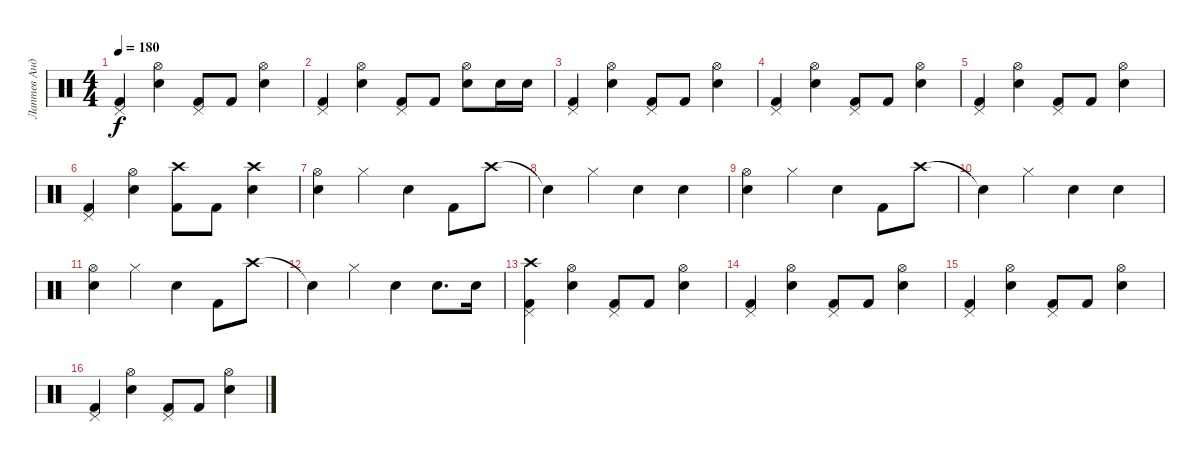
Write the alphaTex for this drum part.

\track ("Лаптев Андрей" "Лаптев Анд") {instrument percussion}
\staff {score}
\articulation defaults
\ts (4 4)
\tempo 180
\clef neutral
\ks c
("Kick (hit) 2" "Pedal Hi-Hat (hit)").4{dy f} ("Snare (hit) 2" "Hi-Hat (open)").4 ("Kick (hit) 2" "Pedal Hi-Hat (hit)").8 "Kick (hit) 2".8 ("Snare (hit) 2" "Hi-Hat (open)").4 |
("Kick (hit) 2" "Pedal Hi-Hat (hit)").4 ("Snare (hit) 2" "Hi-Hat (open)").4 ("Kick (hit) 2" "Pedal Hi-Hat (hit)").8 "Kick (hit) 2".8 ("Snare (hit) 2" "Hi-Hat (open)").8 "Snare (hit) 2".16 "Snare (hit) 2".16 |
("Kick (hit) 2" "Pedal Hi-Hat (hit)").4 ("Snare (hit) 2" "Hi-Hat (open)").4 ("Kick (hit) 2" "Pedal Hi-Hat (hit)").8 "Kick (hit) 2".8 ("Snare (hit) 2" "Hi-Hat (open)").4 |
("Kick (hit) 2" "Pedal Hi-Hat (hit)").4 ("Snare (hit) 2" "Hi-Hat (open)").4 ("Kick (hit) 2" "Pedal Hi-Hat (hit)").8 "Kick (hit) 2".8 ("Snare (hit) 2" "Hi-Hat (open)").4 |
("Kick (hit) 2" "Pedal Hi-Hat (hit)").4 ("Snare (hit) 2" "Hi-Hat (open)").4 ("Kick (hit) 2" "Pedal Hi-Hat (hit)").8 "Kick (hit) 2".8 ("Snare (hit) 2" "Hi-Hat (open)").4 |
("Kick (hit) 2" "Pedal Hi-Hat (hit)").4 ("Snare (hit) 2" "Hi-Hat (open)").4 ("Kick (hit) 2" "Crash high (hit)").8 "Kick (hit) 2".8 ("Snare (hit) 2" "Crash high (hit)").4 |
("Snare (hit) 2" "Hi-Hat (open)").4 "Hi-Hat (closed)".4 "Snare (hit) 2".4 "Kick (hit) 2".8 "Crash high (hit)".8 |
"Snare (hit)"{t}.4 "Hi-Hat (closed)".4 "Snare (hit) 2".4 "Snare (hit) 2".4 |
("Snare (hit) 2" "Hi-Hat (open)").4 "Hi-Hat (closed)".4 "Snare (hit) 2".4 "Kick (hit) 2".8 "Crash high (hit)".8 |
"Snare (hit)"{t}.4 "Hi-Hat (closed)".4 "Snare (hit) 2".4 "Snare (hit) 2".4 |
("Snare (hit) 2" "Hi-Hat (open)").4 "Hi-Hat (closed)".4 "Snare (hit) 2".4 "Kick (hit) 2".8 "Crash high (hit)".8 |
"Snare (hit)"{t}.4 "Hi-Hat (closed)".4 "Snare (hit) 2".4 "Snare (hit) 2".8{d} "Snare (hit) 2".16 |
("Kick (hit) 2" "Crash high (hit)" "Pedal Hi-Hat (hit)").4 ("Snare (hit) 2" "Hi-Hat (open)").4 ("Kick (hit) 2" "Pedal Hi-Hat (hit)").8 "Kick (hit) 2".8 ("Snare (hit) 2" "Hi-Hat (open)").4 |
("Kick (hit) 2" "Pedal Hi-Hat (hit)").4 ("Snare (hit) 2" "Hi-Hat (open)").4 ("Kick (hit) 2" "Pedal Hi-Hat (hit)").8 "Kick (hit) 2".8 ("Snare (hit) 2" "Hi-Hat (open)").4 |
("Kick (hit) 2" "Pedal Hi-Hat (hit)").4 ("Snare (hit) 2" "Hi-Hat (open)").4 ("Kick (hit) 2" "Pedal Hi-Hat (hit)").8 "Kick (hit) 2".8 ("Snare (hit) 2" "Hi-Hat (open)").4 |
("Kick (hit) 2" "Pedal Hi-Hat (hit)").4 ("Snare (hit) 2" "Hi-Hat (open)").4 ("Kick (hit) 2" "Pedal Hi-Hat (hit)").8 "Kick (hit) 2".8 ("Snare (hit) 2" "Hi-Hat (open)").4
